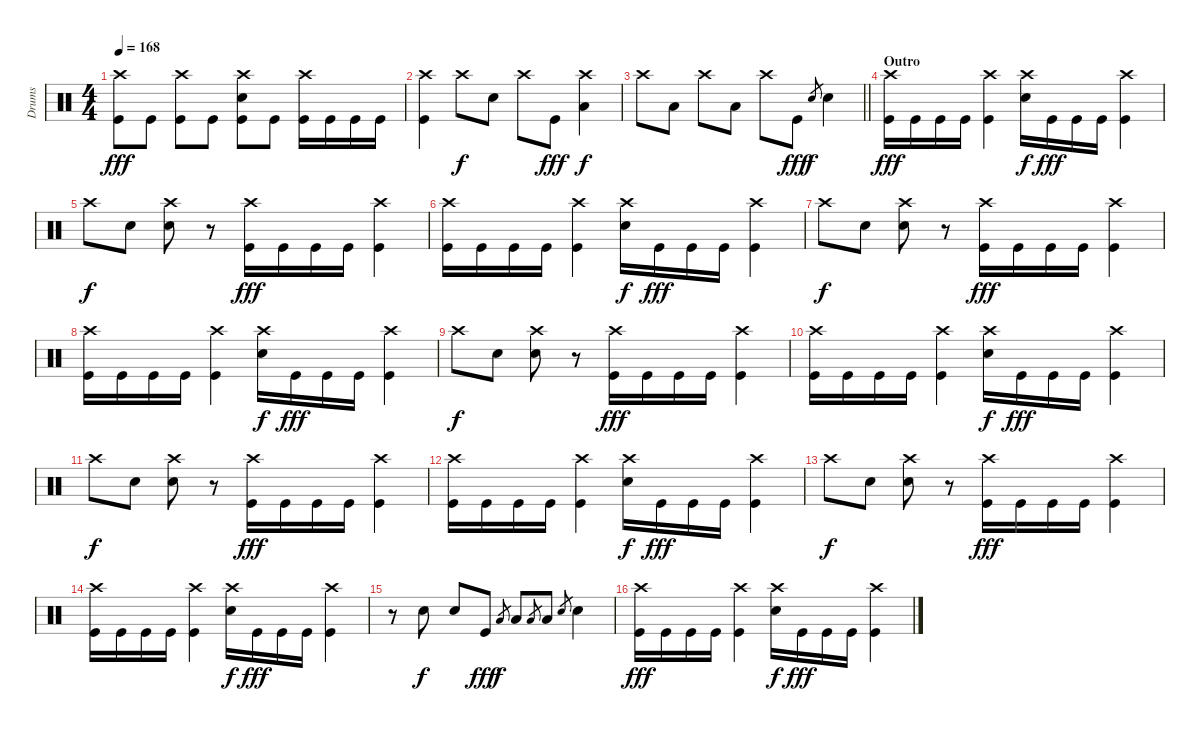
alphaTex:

\track ("Drums" "Drums") {instrument percussion}
\staff {score}
\articulation defaults
\ts (4 4)
\tempo 168
\clef neutral
\ks c
("Crash high (hit)" "Kick (hit)").8{dy fff} "Kick (hit)".8 ("Crash high (hit)" "Kick (hit)").8 "Kick (hit)".8 ("Crash high (hit)" "Snare (hit) 2" "Kick (hit)").8 "Kick (hit)".8 ("Crash high (hit)" "Kick (hit)").16 "Kick (hit)".16 "Kick (hit)".16 "Kick (hit)".16 |
("Crash high (hit)" "Kick (hit)").4 "Crash high (hit)".8{dy f} "Snare (hit) 2".8 "Crash high (hit)".8 "Kick (hit)".8{dy fff} ("Crash high (hit)" "Low Tom (hit)").4{dy f} |
\barLineRight lightlight "Crash high (hit)".8 "Low Tom (hit)".8 "Crash high (hit)".8 "Low Floor Tom (hit)".8 "Crash high (hit)".8 "Kick (hit)".8{dy fff} "Snare (hit) 2".8{gr dy f} "Snare (hit) 2".4
|
\section ("" "Outro")
("Crash high (hit)" "Kick (hit)").16{dy fff} "Kick (hit)".16 "Kick (hit)".16 "Kick (hit)".16 ("Crash high (hit)" "Kick (hit)").4 ("Crash high (hit)" "Snare (hit) 2").16{dy f} "Kick (hit)".16{dy fff} "Kick (hit)".16 "Kick (hit)".16 ("Crash high (hit)" "Kick (hit)").4 |
"Crash high (hit)".8{dy f} "Snare (hit) 2".8 ("Crash high (hit)" "Snare (hit) 2").8 r.8 ("Crash high (hit)" "Kick (hit)").16{dy fff} "Kick (hit)".16 "Kick (hit)".16 "Kick (hit)".16 ("Crash high (hit)" "Kick (hit)").4 |
("Crash high (hit)" "Kick (hit)").16 "Kick (hit)".16 "Kick (hit)".16 "Kick (hit)".16 ("Crash high (hit)" "Kick (hit)").4 ("Crash high (hit)" "Snare (hit) 2").16{dy f} "Kick (hit)".16{dy fff} "Kick (hit)".16 "Kick (hit)".16 ("Crash high (hit)" "Kick (hit)").4 |
"Crash high (hit)".8{dy f} "Snare (hit) 2".8 ("Crash high (hit)" "Snare (hit) 2").8 r.8 ("Crash high (hit)" "Kick (hit)").16{dy fff} "Kick (hit)".16 "Kick (hit)".16 "Kick (hit)".16 ("Crash high (hit)" "Kick (hit)").4 |
("Crash high (hit)" "Kick (hit)").16 "Kick (hit)".16 "Kick (hit)".16 "Kick (hit)".16 ("Crash high (hit)" "Kick (hit)").4 ("Crash high (hit)" "Snare (hit) 2").16{dy f} "Kick (hit)".16{dy fff} "Kick (hit)".16 "Kick (hit)".16 ("Crash high (hit)" "Kick (hit)").4 |
"Crash high (hit)".8{dy f} "Snare (hit) 2".8 ("Crash high (hit)" "Snare (hit) 2").8 r.8 ("Crash high (hit)" "Kick (hit)").16{dy fff} "Kick (hit)".16 "Kick (hit)".16 "Kick (hit)".16 ("Crash high (hit)" "Kick (hit)").4 |
("Crash high (hit)" "Kick (hit)").16 "Kick (hit)".16 "Kick (hit)".16 "Kick (hit)".16 ("Crash high (hit)" "Kick (hit)").4 ("Crash high (hit)" "Snare (hit) 2").16{dy f} "Kick (hit)".16{dy fff} "Kick (hit)".16 "Kick (hit)".16 ("Crash high (hit)" "Kick (hit)").4 |
"Crash high (hit)".8{dy f} "Snare (hit) 2".8 ("Crash high (hit)" "Snare (hit) 2").8 r.8 ("Crash high (hit)" "Kick (hit)").16{dy fff} "Kick (hit)".16 "Kick (hit)".16 "Kick (hit)".16 ("Crash high (hit)" "Kick (hit)").4 |
("Crash high (hit)" "Kick (hit)").16 "Kick (hit)".16 "Kick (hit)".16 "Kick (hit)".16 ("Crash high (hit)" "Kick (hit)").4 ("Crash high (hit)" "Snare (hit) 2").16{dy f} "Kick (hit)".16{dy fff} "Kick (hit)".16 "Kick (hit)".16 ("Crash high (hit)" "Kick (hit)").4 |
"Crash high (hit)".8{dy f} "Snare (hit) 2".8 ("Crash high (hit)" "Snare (hit) 2").8 r.8 ("Crash high (hit)" "Kick (hit)").16{dy fff} "Kick (hit)".16 "Kick (hit)".16 "Kick (hit)".16 ("Crash high (hit)" "Kick (hit)").4 |
("Crash high (hit)" "Kick (hit)").16 "Kick (hit)".16 "Kick (hit)".16 "Kick (hit)".16 ("Crash high (hit)" "Kick (hit)").4 ("Crash high (hit)" "Snare (hit) 2").16{dy f} "Kick (hit)".16{dy fff} "Kick (hit)".16 "Kick (hit)".16 ("Crash high (hit)" "Kick (hit)").4 |
r.8 "Snare (hit) 2".8{dy f} "Snare (hit) 2".8 "Kick (hit)".8{dy fff} "Low Floor Tom (hit)".8{gr dy f} "Low Floor Tom (hit)".8 "Low Floor Tom (hit)".8{gr} "Low Floor Tom (hit)".8 "Snare (hit) 2".8{gr} "Snare (hit) 2".4 |
("Crash high (hit)" "Kick (hit)").16{dy fff} "Kick (hit)".16 "Kick (hit)".16 "Kick (hit)".16 ("Crash high (hit)" "Kick (hit)").4 ("Crash high (hit)" "Snare (hit) 2").16{dy f} "Kick (hit)".16{dy fff} "Kick (hit)".16 "Kick (hit)".16 ("Crash high (hit)" "Kick (hit)").4
